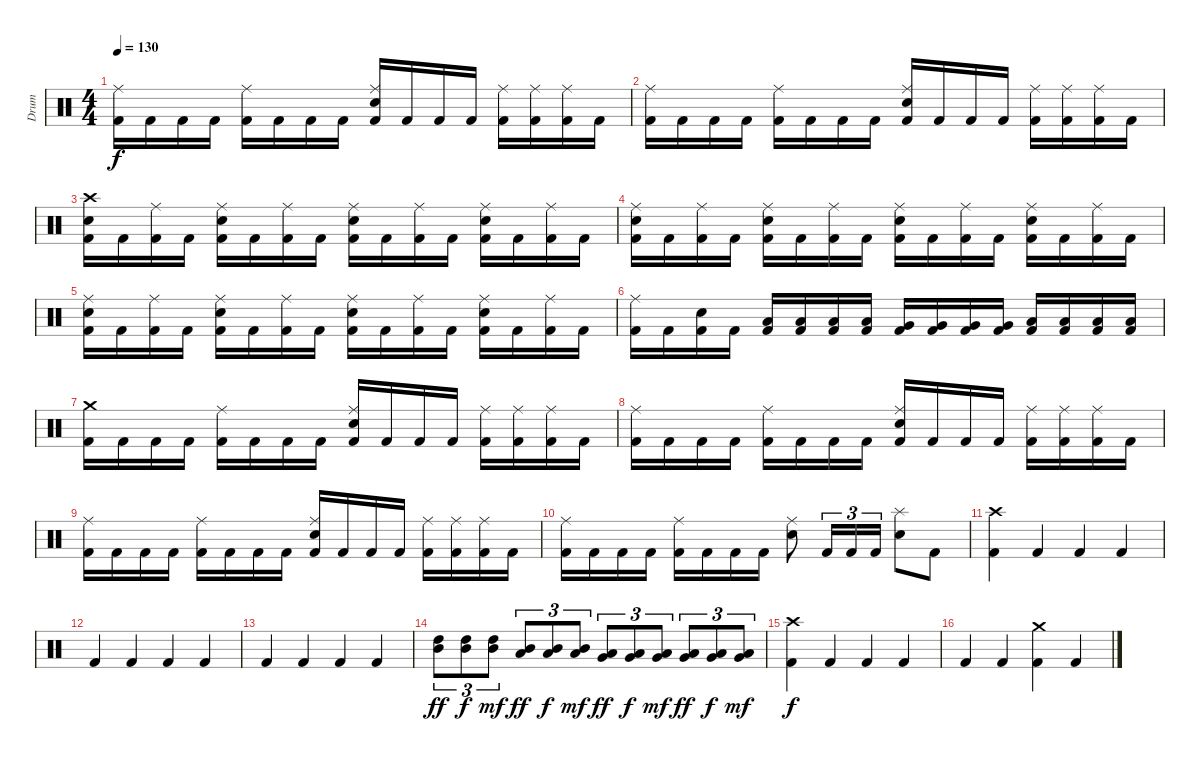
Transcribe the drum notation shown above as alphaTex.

\track ("Drum" "Drum") {instrument percussion}
\staff {score}
\articulation defaults
\ts (4 4)
\tempo 130
\clef neutral
\ks c
("Kick (hit) 2" "Ride (middle)").16{dy f} "Kick (hit) 2".16 "Kick (hit) 2".16 "Kick (hit) 2".16 ("Kick (hit) 2" "Ride (middle)").16 "Kick (hit) 2".16 "Kick (hit) 2".16 "Kick (hit) 2".16 ("Kick (hit) 2" "Electric Snare (hit)" "Ride (middle)").16 "Kick (hit) 2".16 "Kick (hit) 2".16 "Kick (hit) 2".16 ("Kick (hit) 2" "Ride (middle)").16 ("Kick (hit) 2" "Ride (middle)").16 ("Kick (hit) 2" "Ride (middle)").16 "Kick (hit) 2".16 |
("Kick (hit) 2" "Ride (middle)").16 "Kick (hit) 2".16 "Kick (hit) 2".16 "Kick (hit) 2".16 ("Kick (hit) 2" "Ride (middle)").16 "Kick (hit) 2".16 "Kick (hit) 2".16 "Kick (hit) 2".16 ("Kick (hit) 2" "Electric Snare (hit)" "Ride (middle)").16 "Kick (hit) 2".16 "Kick (hit) 2".16 "Kick (hit) 2".16 ("Kick (hit) 2" "Ride (middle)").16 ("Kick (hit) 2" "Ride (middle)").16 ("Kick (hit) 2" "Ride (middle)").16 "Kick (hit) 2".16 |
("Kick (hit) 2" "Electric Snare (hit)" "Crash high (hit)").16 "Kick (hit) 2".16 ("Kick (hit) 2" "Ride (middle)").16 "Kick (hit) 2".16 ("Kick (hit) 2" "Electric Snare (hit)" "Ride (middle)").16 "Kick (hit) 2".16 ("Kick (hit) 2" "Ride (middle)").16 "Kick (hit) 2".16 ("Kick (hit) 2" "Electric Snare (hit)" "Ride (middle)").16 "Kick (hit) 2".16 ("Kick (hit) 2" "Ride (middle)").16 "Kick (hit) 2".16 ("Kick (hit) 2" "Electric Snare (hit)" "Ride (middle)").16 "Kick (hit) 2".16 ("Kick (hit) 2" "Ride (middle)").16 "Kick (hit) 2".16 |
("Kick (hit) 2" "Electric Snare (hit)" "Ride (middle)").16 "Kick (hit) 2".16 ("Kick (hit) 2" "Ride (middle)").16 "Kick (hit) 2".16 ("Kick (hit) 2" "Electric Snare (hit)" "Ride (middle)").16 "Kick (hit) 2".16 ("Kick (hit) 2" "Ride (middle)").16 "Kick (hit) 2".16 ("Kick (hit) 2" "Electric Snare (hit)" "Ride (middle)").16 "Kick (hit) 2".16 ("Kick (hit) 2" "Ride (middle)").16 "Kick (hit) 2".16 ("Kick (hit) 2" "Electric Snare (hit)" "Ride (middle)").16 "Kick (hit) 2".16 ("Kick (hit) 2" "Ride (middle)").16 "Kick (hit) 2".16 |
("Kick (hit) 2" "Electric Snare (hit)" "Ride (middle)").16 "Kick (hit) 2".16 ("Kick (hit) 2" "Ride (middle)").16 "Kick (hit) 2".16 ("Kick (hit) 2" "Electric Snare (hit)" "Ride (middle)").16 "Kick (hit) 2".16 ("Kick (hit) 2" "Ride (middle)").16 "Kick (hit) 2".16 ("Kick (hit) 2" "Electric Snare (hit)" "Ride (middle)").16 "Kick (hit) 2".16 ("Kick (hit) 2" "Ride (middle)").16 "Kick (hit) 2".16 ("Kick (hit) 2" "Electric Snare (hit)" "Ride (middle)").16 "Kick (hit) 2".16 ("Kick (hit) 2" "Ride (middle)").16 "Kick (hit) 2".16 |
("Kick (hit) 2" "Ride (middle)").16 "Kick (hit) 2".16 ("Kick (hit) 2" "Electric Snare (hit)").16 "Kick (hit) 2".16 ("Kick (hit) 2" "Low Tom (hit)").16 ("Kick (hit) 2" "Low Tom (hit)").16 ("Kick (hit) 2" "Low Tom (hit)").16 ("Kick (hit) 2" "Low Tom (hit)").16 ("Kick (hit) 2" "Very Low Tom (hit)").16 ("Kick (hit) 2" "Very Low Tom (hit)").16 ("Kick (hit) 2" "Very Low Tom (hit)").16 ("Kick (hit) 2" "Very Low Tom (hit)").16 ("Kick (hit) 2" "Low Floor Tom (hit)").16 ("Kick (hit) 2" "Low Floor Tom (hit)").16 ("Kick (hit) 2" "Low Floor Tom (hit)").16 ("Kick (hit) 2" "Low Floor Tom (hit)").16 |
("Kick (hit) 2" "Crash medium (hit)").16 "Kick (hit) 2".16 "Kick (hit) 2".16 "Kick (hit) 2".16 ("Kick (hit) 2" "Ride (middle)").16 "Kick (hit) 2".16 "Kick (hit) 2".16 "Kick (hit) 2".16 ("Kick (hit) 2" "Electric Snare (hit)" "Ride (middle)").16 "Kick (hit) 2".16 "Kick (hit) 2".16 "Kick (hit) 2".16 ("Kick (hit) 2" "Ride (middle)").16 ("Kick (hit) 2" "Ride (middle)").16 ("Kick (hit) 2" "Ride (middle)").16 "Kick (hit) 2".16 |
("Kick (hit) 2" "Ride (middle)").16 "Kick (hit) 2".16 "Kick (hit) 2".16 "Kick (hit) 2".16 ("Kick (hit) 2" "Ride (middle)").16 "Kick (hit) 2".16 "Kick (hit) 2".16 "Kick (hit) 2".16 ("Kick (hit) 2" "Electric Snare (hit)" "Ride (middle)").16 "Kick (hit) 2".16 "Kick (hit) 2".16 "Kick (hit) 2".16 ("Kick (hit) 2" "Ride (middle)").16 ("Kick (hit) 2" "Ride (middle)").16 ("Kick (hit) 2" "Ride (middle)").16 "Kick (hit) 2".16 |
("Kick (hit) 2" "Ride (middle)").16 "Kick (hit) 2".16 "Kick (hit) 2".16 "Kick (hit) 2".16 ("Kick (hit) 2" "Ride (middle)").16 "Kick (hit) 2".16 "Kick (hit) 2".16 "Kick (hit) 2".16 ("Kick (hit) 2" "Electric Snare (hit)" "Ride (middle)").16 "Kick (hit) 2".16 "Kick (hit) 2".16 "Kick (hit) 2".16 ("Kick (hit) 2" "Ride (middle)").16 ("Kick (hit) 2" "Ride (middle)").16 ("Kick (hit) 2" "Ride (middle)").16 "Kick (hit) 2".16 |
("Kick (hit) 2" "Ride (middle)").16 "Kick (hit) 2".16 "Kick (hit) 2".16 "Kick (hit) 2".16 ("Kick (hit) 2" "Ride (middle)").16 "Kick (hit) 2".16 "Kick (hit) 2".16 "Kick (hit) 2".16 ("Electric Snare (hit)" "Ride (middle)").8 "Kick (hit) 2".16{tu (3 2)} "Kick (hit) 2".16{tu (3 2)} "Kick (hit) 2".16{tu (3 2)} ("Electric Snare (hit)" "Splash (hit)").8 "Kick (hit) 2".8 |
("Kick (hit) 2" "Crash high (hit)").4 "Kick (hit) 2".4 "Kick (hit) 2".4 "Kick (hit) 2".4 |
"Kick (hit) 2".4 "Kick (hit) 2".4 "Kick (hit) 2".4 "Kick (hit) 2".4 |
"Kick (hit) 2".4 "Kick (hit) 2".4 "Kick (hit) 2".4 "Kick (hit) 2".4 |
("High Tom (hit)" "Mid Tom (hit)").8{tu (3 2) dy ff} ("High Tom (hit)" "Mid Tom (hit)").8{tu (3 2) dy f} ("High Tom (hit)" "Mid Tom (hit)").8{tu (3 2) dy mf} ("Mid Tom (hit)" "Low Tom (hit)").8{tu (3 2) dy ff} ("Mid Tom (hit)" "Low Tom (hit)").8{tu (3 2) dy f} ("Mid Tom (hit)" "Low Tom (hit)").8{tu (3 2) dy mf} ("Low Tom (hit)" "Very Low Tom (hit)").8{tu (3 2) dy ff} ("Low Tom (hit)" "Very Low Tom (hit)").8{tu (3 2) dy f} ("Low Tom (hit)" "Very Low Tom (hit)").8{tu (3 2) dy mf} ("Very Low Tom (hit)" "Low Floor Tom (hit)").8{tu (3 2) dy ff} ("Very Low Tom (hit)" "Low Floor Tom (hit)").8{tu (3 2) dy f} ("Very Low Tom (hit)" "Low Floor Tom (hit)").8{tu (3 2) dy mf} |
("Kick (hit) 2" "Crash high (hit)").4{dy f} "Kick (hit) 2".4 "Kick (hit) 2".4 "Kick (hit) 2".4 |
"Kick (hit) 2".4 "Kick (hit) 2".4 ("Kick (hit) 2" "Crash medium (hit)").4 "Kick (hit) 2".4
